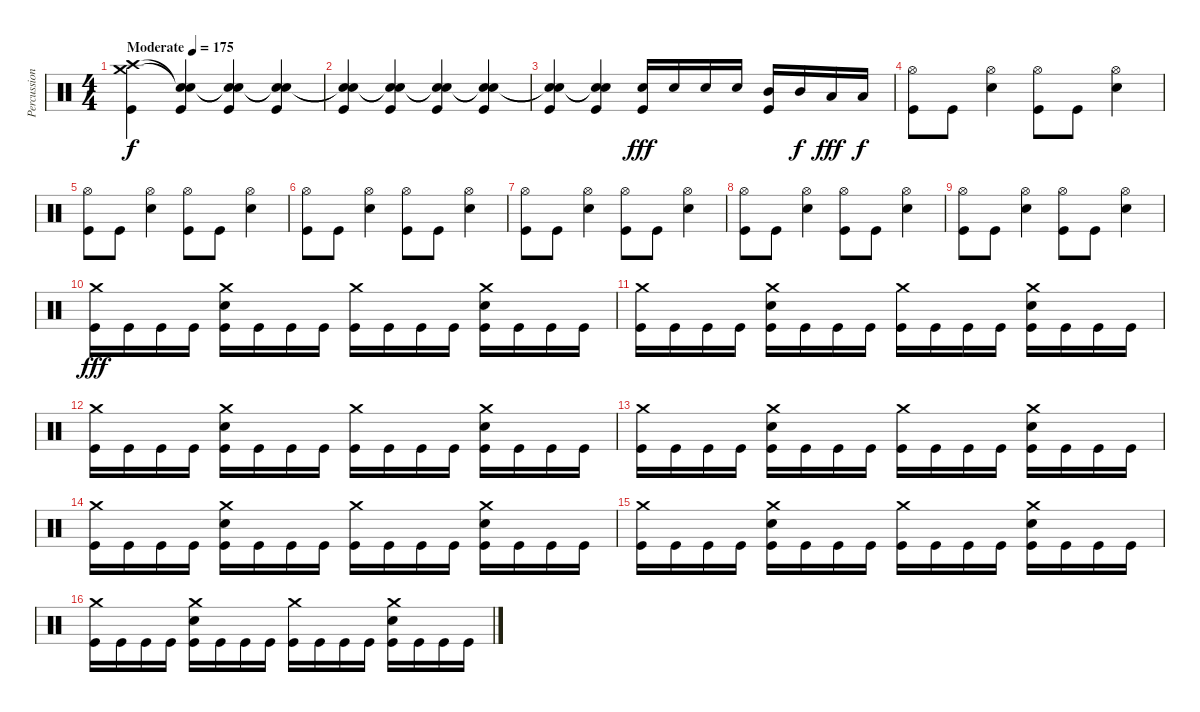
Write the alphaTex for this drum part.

\track ("Percussion" "Percussion") {instrument percussion}
\staff {score}
\articulation defaults
\ts (4 4)
\tempo (175 "Moderate")
\clef neutral
\ks c
("Crash medium (hit)" "Crash high (hit)" "Kick (hit)").4{dy f} ("Snare (hit)"{t} "Snare (hit)"{t} "Kick (hit)").4 ("Snare (hit)"{t} "Snare (hit)"{t} "Kick (hit)").4 ("Snare (hit)"{t} "Snare (hit)"{t} "Kick (hit)").4 |
("Snare (hit)"{t} "Snare (hit)"{t} "Kick (hit)").4 ("Snare (hit)"{t} "Snare (hit)"{t} "Kick (hit)").4 ("Snare (hit)"{t} "Snare (hit)"{t} "Kick (hit)").4 ("Snare (hit)"{t} "Snare (hit)"{t} "Kick (hit)").4 |
("Snare (hit)"{t} "Snare (hit)"{t} "Kick (hit)").4 ("Snare (hit)"{t} "Snare (hit)"{t} "Kick (hit)").4 ("Electric Snare (hit)" "Kick (hit)").16{dy fff} "Electric Snare (hit)".16 "Electric Snare (hit)".16 "Electric Snare (hit)".16 ("Mid Tom (hit)" "Kick (hit)").16 "Mid Tom (hit)".16{dy f} "Low Tom (hit)".16{dy fff} "Low Tom (hit)".16{dy f} |
("Hi-Hat (open)" "Kick (hit)").8 "Kick (hit)".8 ("Hi-Hat (open)" "Electric Snare (hit)").4 ("Hi-Hat (open)" "Kick (hit)").8 "Kick (hit)".8 ("Hi-Hat (open)" "Electric Snare (hit)").4 |
("Hi-Hat (open)" "Kick (hit)").8 "Kick (hit)".8 ("Hi-Hat (open)" "Electric Snare (hit)").4 ("Hi-Hat (open)" "Kick (hit)").8 "Kick (hit)".8 ("Hi-Hat (open)" "Electric Snare (hit)").4 |
("Hi-Hat (open)" "Kick (hit)").8 "Kick (hit)".8 ("Hi-Hat (open)" "Electric Snare (hit)").4 ("Hi-Hat (open)" "Kick (hit)").8 "Kick (hit)".8 ("Hi-Hat (open)" "Electric Snare (hit)").4 |
("Hi-Hat (open)" "Kick (hit)").8 "Kick (hit)".8 ("Hi-Hat (open)" "Electric Snare (hit)").4 ("Hi-Hat (open)" "Kick (hit)").8 "Kick (hit)".8 ("Hi-Hat (open)" "Electric Snare (hit)").4 |
("Hi-Hat (open)" "Kick (hit)").8 "Kick (hit)".8 ("Hi-Hat (open)" "Electric Snare (hit)").4 ("Hi-Hat (open)" "Kick (hit)").8 "Kick (hit)".8 ("Hi-Hat (open)" "Electric Snare (hit)").4 |
("Hi-Hat (open)" "Kick (hit)").8 "Kick (hit)".8 ("Hi-Hat (open)" "Electric Snare (hit)").4 ("Hi-Hat (open)" "Kick (hit)").8 "Kick (hit)".8 ("Hi-Hat (open)" "Electric Snare (hit)").4 |
("Crash medium (hit)" "Kick (hit)").16{dy fff} "Kick (hit)".16 "Kick (hit)".16 "Kick (hit)".16 ("Crash medium (hit)" "Electric Snare (hit)" "Kick (hit)").16 "Kick (hit)".16 "Kick (hit)".16 "Kick (hit)".16 ("Crash medium (hit)" "Kick (hit)").16 "Kick (hit)".16 "Kick (hit)".16 "Kick (hit)".16 ("Crash medium (hit)" "Electric Snare (hit)" "Kick (hit)").16 "Kick (hit)".16 "Kick (hit)".16 "Kick (hit)".16 |
("Crash medium (hit)" "Kick (hit)").16 "Kick (hit)".16 "Kick (hit)".16 "Kick (hit)".16 ("Crash medium (hit)" "Electric Snare (hit)" "Kick (hit)").16 "Kick (hit)".16 "Kick (hit)".16 "Kick (hit)".16 ("Crash medium (hit)" "Kick (hit)").16 "Kick (hit)".16 "Kick (hit)".16 "Kick (hit)".16 ("Crash medium (hit)" "Electric Snare (hit)" "Kick (hit)").16 "Kick (hit)".16 "Kick (hit)".16 "Kick (hit)".16 |
("Crash medium (hit)" "Kick (hit)").16 "Kick (hit)".16 "Kick (hit)".16 "Kick (hit)".16 ("Crash medium (hit)" "Electric Snare (hit)" "Kick (hit)").16 "Kick (hit)".16 "Kick (hit)".16 "Kick (hit)".16 ("Crash medium (hit)" "Kick (hit)").16 "Kick (hit)".16 "Kick (hit)".16 "Kick (hit)".16 ("Crash medium (hit)" "Electric Snare (hit)" "Kick (hit)").16 "Kick (hit)".16 "Kick (hit)".16 "Kick (hit)".16 |
("Crash medium (hit)" "Kick (hit)").16 "Kick (hit)".16 "Kick (hit)".16 "Kick (hit)".16 ("Crash medium (hit)" "Electric Snare (hit)" "Kick (hit)").16 "Kick (hit)".16 "Kick (hit)".16 "Kick (hit)".16 ("Crash medium (hit)" "Kick (hit)").16 "Kick (hit)".16 "Kick (hit)".16 "Kick (hit)".16 ("Crash medium (hit)" "Electric Snare (hit)" "Kick (hit)").16 "Kick (hit)".16 "Kick (hit)".16 "Kick (hit)".16 |
("Crash medium (hit)" "Kick (hit)").16 "Kick (hit)".16 "Kick (hit)".16 "Kick (hit)".16 ("Crash medium (hit)" "Electric Snare (hit)" "Kick (hit)").16 "Kick (hit)".16 "Kick (hit)".16 "Kick (hit)".16 ("Crash medium (hit)" "Kick (hit)").16 "Kick (hit)".16 "Kick (hit)".16 "Kick (hit)".16 ("Crash medium (hit)" "Electric Snare (hit)" "Kick (hit)").16 "Kick (hit)".16 "Kick (hit)".16 "Kick (hit)".16 |
("Crash medium (hit)" "Kick (hit)").16 "Kick (hit)".16 "Kick (hit)".16 "Kick (hit)".16 ("Crash medium (hit)" "Electric Snare (hit)" "Kick (hit)").16 "Kick (hit)".16 "Kick (hit)".16 "Kick (hit)".16 ("Crash medium (hit)" "Kick (hit)").16 "Kick (hit)".16 "Kick (hit)".16 "Kick (hit)".16 ("Crash medium (hit)" "Electric Snare (hit)" "Kick (hit)").16 "Kick (hit)".16 "Kick (hit)".16 "Kick (hit)".16 |
("Crash medium (hit)" "Kick (hit)").16 "Kick (hit)".16 "Kick (hit)".16 "Kick (hit)".16 ("Crash medium (hit)" "Electric Snare (hit)" "Kick (hit)").16 "Kick (hit)".16 "Kick (hit)".16 "Kick (hit)".16 ("Crash medium (hit)" "Kick (hit)").16 "Kick (hit)".16 "Kick (hit)".16 "Kick (hit)".16 ("Crash medium (hit)" "Electric Snare (hit)" "Kick (hit)").16 "Kick (hit)".16 "Kick (hit)".16 "Kick (hit)".16
